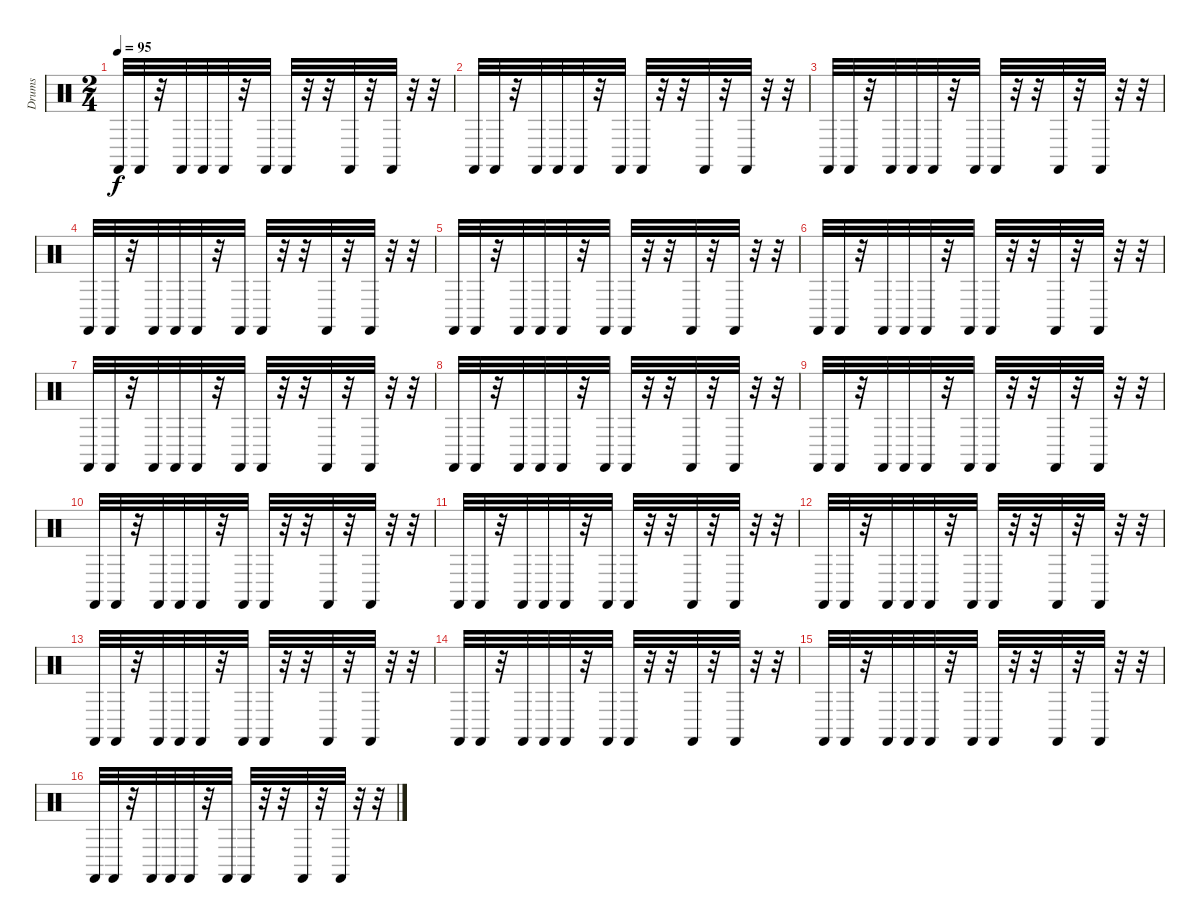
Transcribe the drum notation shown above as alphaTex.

\track ("Drums" "Drums") {instrument percussion}
\staff {score}
\articulation defaults
\ts (2 4)
\tempo 95
\clef neutral
\ks c "Castanets (hit)".32{dy f} "Castanets (hit)".32
r.32 "Castanets (hit)".32 "Castanets (hit)".32 "Castanets (hit)".32 r.32 "Castanets (hit)".32 "Castanets (hit)".32 r.32 r.32 "Castanets (hit)".32 r.32 "Castanets (hit)".32 r.32 r.32 |
"Castanets (hit)".32 "Castanets (hit)".32 r.32 "Castanets (hit)".32 "Castanets (hit)".32 "Castanets (hit)".32 r.32 "Castanets (hit)".32 "Castanets (hit)".32 r.32 r.32 "Castanets (hit)".32 r.32 "Castanets (hit)".32 r.32 r.32 |
"Castanets (hit)".32 "Castanets (hit)".32 r.32 "Castanets (hit)".32 "Castanets (hit)".32 "Castanets (hit)".32 r.32 "Castanets (hit)".32 "Castanets (hit)".32 r.32 r.32 "Castanets (hit)".32 r.32 "Castanets (hit)".32 r.32 r.32 |
"Castanets (hit)".32 "Castanets (hit)".32 r.32 "Castanets (hit)".32 "Castanets (hit)".32 "Castanets (hit)".32 r.32 "Castanets (hit)".32 "Castanets (hit)".32 r.32 r.32 "Castanets (hit)".32 r.32 "Castanets (hit)".32 r.32 r.32 |
"Castanets (hit)".32 "Castanets (hit)".32 r.32 "Castanets (hit)".32 "Castanets (hit)".32 "Castanets (hit)".32 r.32 "Castanets (hit)".32 "Castanets (hit)".32 r.32 r.32 "Castanets (hit)".32 r.32 "Castanets (hit)".32 r.32 r.32 |
"Castanets (hit)".32 "Castanets (hit)".32 r.32 "Castanets (hit)".32 "Castanets (hit)".32 "Castanets (hit)".32 r.32 "Castanets (hit)".32 "Castanets (hit)".32 r.32 r.32 "Castanets (hit)".32 r.32 "Castanets (hit)".32 r.32 r.32 |
"Castanets (hit)".32 "Castanets (hit)".32 r.32 "Castanets (hit)".32 "Castanets (hit)".32 "Castanets (hit)".32 r.32 "Castanets (hit)".32 "Castanets (hit)".32 r.32 r.32 "Castanets (hit)".32 r.32 "Castanets (hit)".32 r.32 r.32 |
"Castanets (hit)".32 "Castanets (hit)".32 r.32 "Castanets (hit)".32 "Castanets (hit)".32 "Castanets (hit)".32 r.32 "Castanets (hit)".32 "Castanets (hit)".32 r.32 r.32 "Castanets (hit)".32 r.32 "Castanets (hit)".32 r.32 r.32 |
"Castanets (hit)".32 "Castanets (hit)".32 r.32 "Castanets (hit)".32 "Castanets (hit)".32 "Castanets (hit)".32 r.32 "Castanets (hit)".32 "Castanets (hit)".32 r.32 r.32 "Castanets (hit)".32 r.32 "Castanets (hit)".32 r.32 r.32 |
"Castanets (hit)".32 "Castanets (hit)".32 r.32 "Castanets (hit)".32 "Castanets (hit)".32 "Castanets (hit)".32 r.32 "Castanets (hit)".32 "Castanets (hit)".32 r.32 r.32 "Castanets (hit)".32 r.32 "Castanets (hit)".32 r.32 r.32 |
"Castanets (hit)".32 "Castanets (hit)".32 r.32 "Castanets (hit)".32 "Castanets (hit)".32 "Castanets (hit)".32 r.32 "Castanets (hit)".32 "Castanets (hit)".32 r.32 r.32 "Castanets (hit)".32 r.32 "Castanets (hit)".32 r.32 r.32 |
"Castanets (hit)".32 "Castanets (hit)".32 r.32 "Castanets (hit)".32 "Castanets (hit)".32 "Castanets (hit)".32 r.32 "Castanets (hit)".32 "Castanets (hit)".32 r.32 r.32 "Castanets (hit)".32 r.32 "Castanets (hit)".32 r.32 r.32 |
"Castanets (hit)".32 "Castanets (hit)".32 r.32 "Castanets (hit)".32 "Castanets (hit)".32 "Castanets (hit)".32 r.32 "Castanets (hit)".32 "Castanets (hit)".32 r.32 r.32 "Castanets (hit)".32 r.32 "Castanets (hit)".32 r.32 r.32 |
"Castanets (hit)".32 "Castanets (hit)".32 r.32 "Castanets (hit)".32 "Castanets (hit)".32 "Castanets (hit)".32 r.32 "Castanets (hit)".32 "Castanets (hit)".32 r.32 r.32 "Castanets (hit)".32 r.32 "Castanets (hit)".32 r.32 r.32 |
"Castanets (hit)".32 "Castanets (hit)".32 r.32 "Castanets (hit)".32 "Castanets (hit)".32 "Castanets (hit)".32 r.32 "Castanets (hit)".32 "Castanets (hit)".32 r.32 r.32 "Castanets (hit)".32 r.32 "Castanets (hit)".32 r.32 r.32 |
"Castanets (hit)".32 "Castanets (hit)".32 r.32 "Castanets (hit)".32 "Castanets (hit)".32 "Castanets (hit)".32 r.32 "Castanets (hit)".32 "Castanets (hit)".32 r.32 r.32 "Castanets (hit)".32 r.32 "Castanets (hit)".32 r.32 r.32
